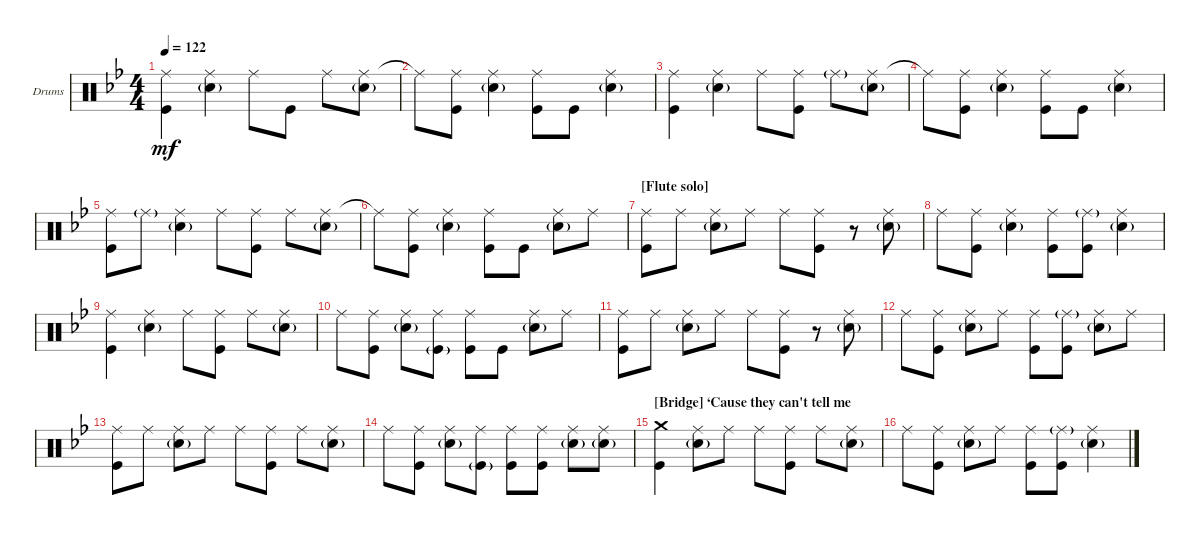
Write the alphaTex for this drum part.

\defaultSystemsLayout 4
\bracketExtendMode groupsimilarinstruments
\firstSystemTrackNameOrientation horizontal
\otherSystemsTrackNameOrientation horizontal
\track ("Drumkit" "Drums") {instrument percussion}
\staff {score}
\articulation defaults
\ts (4 4)
\tempo 122
\clef neutral
\ks bb
("Ride (middle)" "Kick (hit)").4{dy mf} ("Ride (middle)" "Snare (hit) 2"{g}).4 "Ride (middle)".8 "Kick (hit)".8 "Ride (middle)".8 ("Ride (middle)" "Snare (hit) 2"{g}).8 |
"Ride (middle)"{t}.8 ("Ride (middle)" "Kick (hit)").8 ("Ride (middle)" "Snare (hit) 2"{g}).4 ("Ride (middle)" "Kick (hit)").8 "Kick (hit)".8 ("Snare (hit) 2"{g} "Ride (middle)").4 |
("Ride (middle)" "Kick (hit)").4 ("Ride (middle)" "Snare (hit) 2"{g}).4 "Ride (middle)".8 ("Kick (hit)" "Ride (middle)").8 "Ride (middle)"{g}.8 ("Ride (middle)" "Snare (hit) 2"{g}).8 |
"Ride (middle)"{t}.8 ("Ride (middle)" "Kick (hit)").8 ("Ride (middle)" "Snare (hit) 2"{g}).4 ("Ride (middle)" "Kick (hit)").8 "Kick (hit)".8 ("Snare (hit) 2"{g} "Ride (middle)").4 |
("Ride (middle)" "Kick (hit)").8 "Ride (middle)"{g}.8 ("Ride (middle)" "Snare (hit) 2"{g}).4 "Ride (middle)".8 ("Kick (hit)" "Ride (middle)").8 "Ride (middle)".8 ("Ride (middle)" "Snare (hit) 2"{g}).8 |
"Ride (middle)"{t}.8 ("Ride (middle)" "Kick (hit)").8 ("Ride (middle)" "Snare (hit) 2"{g}).4 ("Ride (middle)" "Kick (hit)").8 "Kick (hit)".8 ("Snare (hit) 2"{g} "Ride (middle)").8 "Ride (middle)".8 |
\section ("" "[Flute solo]")
("Ride (middle)" "Kick (hit)").8 "Ride (middle)".8 ("Ride (middle)" "Snare (hit) 2"{g}).8 "Ride (middle)".8 "Ride (middle)".8 ("Kick (hit)" "Ride (middle)").8 r.8 ("Ride (middle)" "Snare (hit) 2"{g}).8 |
"Ride (middle)".8 ("Ride (middle)" "Kick (hit)").8 ("Ride (middle)" "Snare (hit) 2"{g}).4 ("Ride (middle)" "Kick (hit)").8 ("Kick (hit)" "Ride (middle)"{g}).8 ("Snare (hit) 2"{g} "Ride (middle)").4 |
("Ride (middle)" "Kick (hit)").4 ("Ride (middle)" "Snare (hit) 2"{g}).4 "Ride (middle)".8 ("Kick (hit)" "Ride (middle)").8 "Ride (middle)".8 ("Ride (middle)" "Snare (hit) 2"{g}).8 |
"Ride (middle)".8 ("Ride (middle)" "Kick (hit)").8 ("Ride (middle)" "Snare (hit) 2"{g}).8 ("Ride (middle)" "Kick (hit)"{g}).8 ("Ride (middle)" "Kick (hit)").8 "Kick (hit)".8 ("Snare (hit) 2"{g} "Ride (middle)").8 "Ride (middle)".8 |
("Ride (middle)" "Kick (hit)").8 "Ride (middle)".8 ("Ride (middle)" "Snare (hit) 2"{g}).8 "Ride (middle)".8 "Ride (middle)".8 ("Kick (hit)" "Ride (middle)").8 r.8 ("Ride (middle)" "Snare (hit) 2"{g}).8 |
"Ride (middle)".8 ("Ride (middle)" "Kick (hit)").8 ("Ride (middle)" "Snare (hit) 2"{g}).8 "Ride (middle)".8 ("Ride (middle)" "Kick (hit)").8 ("Kick (hit)" "Ride (middle)"{g}).8 ("Snare (hit) 2"{g} "Ride (middle)").8 "Ride (middle)".8 |
("Ride (middle)" "Kick (hit)").8 "Ride (middle)".8 ("Ride (middle)" "Snare (hit) 2"{g}).8 "Ride (middle)".8 "Ride (middle)".8 ("Kick (hit)" "Ride (middle)").8 "Ride (middle)".8 ("Ride (middle)" "Snare (hit) 2"{g}).8 |
"Ride (middle)".8 ("Ride (middle)" "Kick (hit)").8 ("Ride (middle)" "Snare (hit) 2"{g}).8 ("Ride (middle)" "Kick (hit)"{g}).8 ("Ride (middle)" "Kick (hit)").8 ("Kick (hit)" "Ride (middle)").8 ("Snare (hit) 2"{g} "Ride (middle)").8 ("Ride (middle)" "Snare (hit) 2"{g}).8 |
\section ("" "[Bridge] ‘Cause they can't tell me")
("Kick (hit)" "Crash medium (hit)").4 ("Ride (middle)" "Snare (hit) 2"{g}).8 "Ride (middle)".8 "Ride (middle)".8 ("Kick (hit)" "Ride (middle)").8 "Ride (middle)".8 ("Ride (middle)" "Snare (hit) 2"{g}).8 |
"Ride (middle)".8 ("Ride (middle)" "Kick (hit)").8 ("Ride (middle)" "Snare (hit) 2"{g}).8 "Ride (middle)".8 ("Ride (middle)" "Kick (hit)").8 ("Kick (hit)" "Ride (middle)"{g}).8 ("Snare (hit) 2"{g} "Ride (middle)").4
